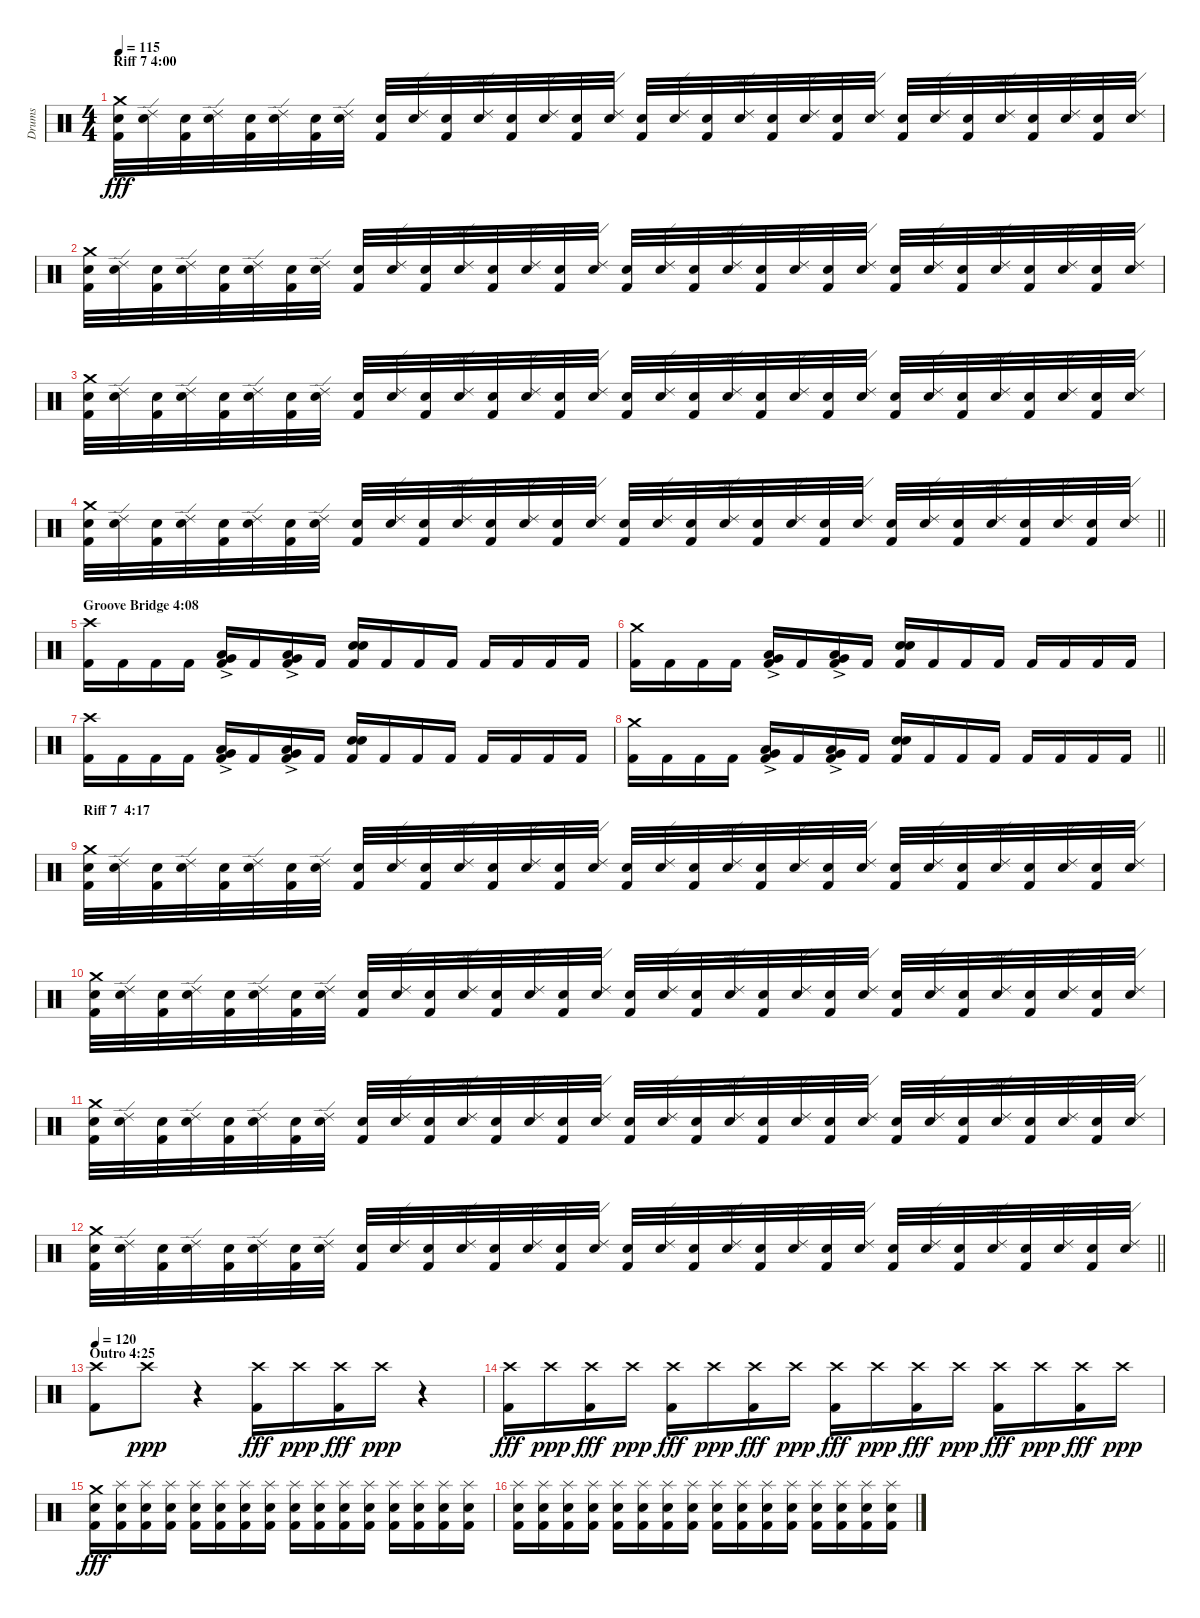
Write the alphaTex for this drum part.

\track ("Drums" "Drums") {instrument percussion}
\staff {score}
\articulation defaults
\ts (4 4)
\section ("" "Riff 7 4:00")
\tempo 115
\clef neutral
\ks c
("Kick (hit) 2" "Electric Snare (hit)" "Crash medium (hit)").32{dy fff} ("Electric Snare (hit)" "Ride (edge) 2").32 ("Kick (hit) 2" "Electric Snare (hit)").32 ("Electric Snare (hit)" "Ride (edge) 2").32 ("Kick (hit) 2" "Electric Snare (hit)").32 ("Electric Snare (hit)" "Ride (edge) 2").32 ("Kick (hit) 2" "Electric Snare (hit)").32 ("Electric Snare (hit)" "Ride (edge) 2").32 ("Kick (hit) 2" "Electric Snare (hit)").32 ("Electric Snare (hit)" "Ride (edge) 2").32 ("Kick (hit) 2" "Electric Snare (hit)").32 ("Electric Snare (hit)" "Ride (edge) 2").32 ("Kick (hit) 2" "Electric Snare (hit)").32 ("Electric Snare (hit)" "Ride (edge) 2").32 ("Kick (hit) 2" "Electric Snare (hit)").32 ("Electric Snare (hit)" "Ride (edge) 2").32 ("Kick (hit) 2" "Electric Snare (hit)").32 ("Electric Snare (hit)" "Ride (edge) 2").32 ("Kick (hit) 2" "Electric Snare (hit)").32 ("Electric Snare (hit)" "Ride (edge) 2").32 ("Kick (hit) 2" "Electric Snare (hit)").32 ("Electric Snare (hit)" "Ride (edge) 2").32 ("Kick (hit) 2" "Electric Snare (hit)").32 ("Electric Snare (hit)" "Ride (edge) 2").32 ("Kick (hit) 2" "Electric Snare (hit)").32 ("Electric Snare (hit)" "Ride (edge) 2").32 ("Kick (hit) 2" "Electric Snare (hit)").32 ("Electric Snare (hit)" "Ride (edge) 2").32 ("Kick (hit) 2" "Electric Snare (hit)").32 ("Electric Snare (hit)" "Ride (edge) 2").32 ("Kick (hit) 2" "Electric Snare (hit)").32 ("Electric Snare (hit)" "Ride (edge) 2").32 |
("Kick (hit) 2" "Electric Snare (hit)" "Crash medium (hit)").32 ("Electric Snare (hit)" "Ride (edge) 2").32 ("Kick (hit) 2" "Electric Snare (hit)").32 ("Electric Snare (hit)" "Ride (edge) 2").32 ("Kick (hit) 2" "Electric Snare (hit)").32 ("Electric Snare (hit)" "Ride (edge) 2").32 ("Kick (hit) 2" "Electric Snare (hit)").32 ("Electric Snare (hit)" "Ride (edge) 2").32 ("Kick (hit) 2" "Electric Snare (hit)").32 ("Electric Snare (hit)" "Ride (edge) 2").32 ("Kick (hit) 2" "Electric Snare (hit)").32 ("Electric Snare (hit)" "Ride (edge) 2").32 ("Kick (hit) 2" "Electric Snare (hit)").32 ("Electric Snare (hit)" "Ride (edge) 2").32 ("Kick (hit) 2" "Electric Snare (hit)").32 ("Electric Snare (hit)" "Ride (edge) 2").32 ("Kick (hit) 2" "Electric Snare (hit)").32 ("Electric Snare (hit)" "Ride (edge) 2").32 ("Kick (hit) 2" "Electric Snare (hit)").32 ("Electric Snare (hit)" "Ride (edge) 2").32 ("Kick (hit) 2" "Electric Snare (hit)").32 ("Electric Snare (hit)" "Ride (edge) 2").32 ("Kick (hit) 2" "Electric Snare (hit)").32 ("Electric Snare (hit)" "Ride (edge) 2").32 ("Kick (hit) 2" "Electric Snare (hit)").32 ("Electric Snare (hit)" "Ride (edge) 2").32 ("Kick (hit) 2" "Electric Snare (hit)").32 ("Electric Snare (hit)" "Ride (edge) 2").32 ("Kick (hit) 2" "Electric Snare (hit)").32 ("Electric Snare (hit)" "Ride (edge) 2").32 ("Kick (hit) 2" "Electric Snare (hit)").32 ("Electric Snare (hit)" "Ride (edge) 2").32 |
("Kick (hit) 2" "Electric Snare (hit)" "Crash medium (hit)").32 ("Electric Snare (hit)" "Ride (edge) 2").32 ("Kick (hit) 2" "Electric Snare (hit)").32 ("Electric Snare (hit)" "Ride (edge) 2").32 ("Kick (hit) 2" "Electric Snare (hit)").32 ("Electric Snare (hit)" "Ride (edge) 2").32 ("Kick (hit) 2" "Electric Snare (hit)").32 ("Electric Snare (hit)" "Ride (edge) 2").32 ("Kick (hit) 2" "Electric Snare (hit)").32 ("Electric Snare (hit)" "Ride (edge) 2").32 ("Kick (hit) 2" "Electric Snare (hit)").32 ("Electric Snare (hit)" "Ride (edge) 2").32 ("Kick (hit) 2" "Electric Snare (hit)").32 ("Electric Snare (hit)" "Ride (edge) 2").32 ("Kick (hit) 2" "Electric Snare (hit)").32 ("Electric Snare (hit)" "Ride (edge) 2").32 ("Kick (hit) 2" "Electric Snare (hit)").32 ("Electric Snare (hit)" "Ride (edge) 2").32 ("Kick (hit) 2" "Electric Snare (hit)").32 ("Electric Snare (hit)" "Ride (edge) 2").32 ("Kick (hit) 2" "Electric Snare (hit)").32 ("Electric Snare (hit)" "Ride (edge) 2").32 ("Kick (hit) 2" "Electric Snare (hit)").32 ("Electric Snare (hit)" "Ride (edge) 2").32 ("Kick (hit) 2" "Electric Snare (hit)").32 ("Electric Snare (hit)" "Ride (edge) 2").32 ("Kick (hit) 2" "Electric Snare (hit)").32 ("Electric Snare (hit)" "Ride (edge) 2").32 ("Kick (hit) 2" "Electric Snare (hit)").32 ("Electric Snare (hit)" "Ride (edge) 2").32 ("Kick (hit) 2" "Electric Snare (hit)").32 ("Electric Snare (hit)" "Ride (edge) 2").32 |
\barLineRight lightlight
("Kick (hit) 2" "Electric Snare (hit)" "Crash medium (hit)").32 ("Electric Snare (hit)" "Ride (edge) 2").32 ("Kick (hit) 2" "Electric Snare (hit)").32 ("Electric Snare (hit)" "Ride (edge) 2").32 ("Kick (hit) 2" "Electric Snare (hit)").32 ("Electric Snare (hit)" "Ride (edge) 2").32 ("Kick (hit) 2" "Electric Snare (hit)").32 ("Electric Snare (hit)" "Ride (edge) 2").32 ("Kick (hit) 2" "Electric Snare (hit)").32 ("Electric Snare (hit)" "Ride (edge) 2").32 ("Kick (hit) 2" "Electric Snare (hit)").32 ("Electric Snare (hit)" "Ride (edge) 2").32 ("Kick (hit) 2" "Electric Snare (hit)").32 ("Electric Snare (hit)" "Ride (edge) 2").32 ("Kick (hit) 2" "Electric Snare (hit)").32 ("Electric Snare (hit)" "Ride (edge) 2").32 ("Kick (hit) 2" "Electric Snare (hit)").32 ("Electric Snare (hit)" "Ride (edge) 2").32 ("Kick (hit) 2" "Electric Snare (hit)").32 ("Electric Snare (hit)" "Ride (edge) 2").32 ("Kick (hit) 2" "Electric Snare (hit)").32 ("Electric Snare (hit)" "Ride (edge) 2").32 ("Kick (hit) 2" "Electric Snare (hit)").32 ("Electric Snare (hit)" "Ride (edge) 2").32 ("Kick (hit) 2" "Electric Snare (hit)").32 ("Electric Snare (hit)" "Ride (edge) 2").32 ("Kick (hit) 2" "Electric Snare (hit)").32 ("Electric Snare (hit)" "Ride (edge) 2").32 ("Kick (hit) 2" "Electric Snare (hit)").32 ("Electric Snare (hit)" "Ride (edge) 2").32 ("Kick (hit) 2" "Electric Snare (hit)").32 ("Electric Snare (hit)" "Ride (edge) 2").32 |
\section ("" "Groove Bridge 4:08")
("Kick (hit) 2" "Crash high (hit)").16 "Kick (hit) 2".16 "Kick (hit) 2".16 "Kick (hit) 2".16 ("Kick (hit) 2" "Very Low Tom (hit)"{ac} "Low Tom (hit)"{ac}).16 "Kick (hit) 2".16 ("Kick (hit) 2" "Very Low Tom (hit)"{ac} "Low Tom (hit)"{ac}).16 "Kick (hit) 2".16 ("Kick (hit) 2" "Snare (hit) 2" "Electric Snare (hit)").16 "Kick (hit) 2".16 "Kick (hit) 2".16 "Kick (hit) 2".16 "Kick (hit) 2".16 "Kick (hit) 2".16 "Kick (hit) 2".16 "Kick (hit) 2".16 |
("Kick (hit) 2" "Crash medium (hit)").16 "Kick (hit) 2".16 "Kick (hit) 2".16 "Kick (hit) 2".16 ("Kick (hit) 2" "Very Low Tom (hit)"{ac} "Low Tom (hit)"{ac}).16 "Kick (hit) 2".16 ("Kick (hit) 2" "Very Low Tom (hit)"{ac} "Low Tom (hit)"{ac}).16 "Kick (hit) 2".16 ("Kick (hit) 2" "Snare (hit) 2" "Electric Snare (hit)").16 "Kick (hit) 2".16 "Kick (hit) 2".16 "Kick (hit) 2".16 "Kick (hit) 2".16 "Kick (hit) 2".16 "Kick (hit) 2".16 "Kick (hit) 2".16 |
("Kick (hit) 2" "Crash high (hit)").16 "Kick (hit) 2".16 "Kick (hit) 2".16 "Kick (hit) 2".16 ("Kick (hit) 2" "Very Low Tom (hit)"{ac} "Low Tom (hit)"{ac}).16 "Kick (hit) 2".16 ("Kick (hit) 2" "Very Low Tom (hit)"{ac} "Low Tom (hit)"{ac}).16 "Kick (hit) 2".16 ("Kick (hit) 2" "Snare (hit) 2" "Electric Snare (hit)").16 "Kick (hit) 2".16 "Kick (hit) 2".16 "Kick (hit) 2".16 "Kick (hit) 2".16 "Kick (hit) 2".16 "Kick (hit) 2".16 "Kick (hit) 2".16 |
\barLineRight lightlight
("Kick (hit) 2" "Crash medium (hit)").16 "Kick (hit) 2".16 "Kick (hit) 2".16 "Kick (hit) 2".16 ("Kick (hit) 2" "Very Low Tom (hit)"{ac} "Low Tom (hit)"{ac}).16 "Kick (hit) 2".16 ("Kick (hit) 2" "Very Low Tom (hit)"{ac} "Low Tom (hit)"{ac}).16 "Kick (hit) 2".16 ("Kick (hit) 2" "Snare (hit) 2" "Electric Snare (hit)").16 "Kick (hit) 2".16 "Kick (hit) 2".16 "Kick (hit) 2".16 "Kick (hit) 2".16 "Kick (hit) 2".16 "Kick (hit) 2".16 "Kick (hit) 2".16 |
\section ("" "Riff 7  4:17")
("Kick (hit) 2" "Electric Snare (hit)" "Crash medium (hit)").32 ("Electric Snare (hit)" "Ride (edge) 2").32 ("Kick (hit) 2" "Electric Snare (hit)").32 ("Electric Snare (hit)" "Ride (edge) 2").32 ("Kick (hit) 2" "Electric Snare (hit)").32 ("Electric Snare (hit)" "Ride (edge) 2").32 ("Kick (hit) 2" "Electric Snare (hit)").32 ("Electric Snare (hit)" "Ride (edge) 2").32 ("Kick (hit) 2" "Electric Snare (hit)").32 ("Electric Snare (hit)" "Ride (edge) 2").32 ("Kick (hit) 2" "Electric Snare (hit)").32 ("Electric Snare (hit)" "Ride (edge) 2").32 ("Kick (hit) 2" "Electric Snare (hit)").32 ("Electric Snare (hit)" "Ride (edge) 2").32 ("Kick (hit) 2" "Electric Snare (hit)").32 ("Electric Snare (hit)" "Ride (edge) 2").32 ("Kick (hit) 2" "Electric Snare (hit)").32 ("Electric Snare (hit)" "Ride (edge) 2").32 ("Kick (hit) 2" "Electric Snare (hit)").32 ("Electric Snare (hit)" "Ride (edge) 2").32 ("Kick (hit) 2" "Electric Snare (hit)").32 ("Electric Snare (hit)" "Ride (edge) 2").32 ("Kick (hit) 2" "Electric Snare (hit)").32 ("Electric Snare (hit)" "Ride (edge) 2").32 ("Kick (hit) 2" "Electric Snare (hit)").32 ("Electric Snare (hit)" "Ride (edge) 2").32 ("Kick (hit) 2" "Electric Snare (hit)").32 ("Electric Snare (hit)" "Ride (edge) 2").32 ("Kick (hit) 2" "Electric Snare (hit)").32 ("Electric Snare (hit)" "Ride (edge) 2").32 ("Kick (hit) 2" "Electric Snare (hit)").32 ("Electric Snare (hit)" "Ride (edge) 2").32 |
("Kick (hit) 2" "Electric Snare (hit)" "Crash medium (hit)").32 ("Electric Snare (hit)" "Ride (edge) 2").32 ("Kick (hit) 2" "Electric Snare (hit)").32 ("Electric Snare (hit)" "Ride (edge) 2").32 ("Kick (hit) 2" "Electric Snare (hit)").32 ("Electric Snare (hit)" "Ride (edge) 2").32 ("Kick (hit) 2" "Electric Snare (hit)").32 ("Electric Snare (hit)" "Ride (edge) 2").32 ("Kick (hit) 2" "Electric Snare (hit)").32 ("Electric Snare (hit)" "Ride (edge) 2").32 ("Kick (hit) 2" "Electric Snare (hit)").32 ("Electric Snare (hit)" "Ride (edge) 2").32 ("Kick (hit) 2" "Electric Snare (hit)").32 ("Electric Snare (hit)" "Ride (edge) 2").32 ("Kick (hit) 2" "Electric Snare (hit)").32 ("Electric Snare (hit)" "Ride (edge) 2").32 ("Kick (hit) 2" "Electric Snare (hit)").32 ("Electric Snare (hit)" "Ride (edge) 2").32 ("Kick (hit) 2" "Electric Snare (hit)").32 ("Electric Snare (hit)" "Ride (edge) 2").32 ("Kick (hit) 2" "Electric Snare (hit)").32 ("Electric Snare (hit)" "Ride (edge) 2").32 ("Kick (hit) 2" "Electric Snare (hit)").32 ("Electric Snare (hit)" "Ride (edge) 2").32 ("Kick (hit) 2" "Electric Snare (hit)").32 ("Electric Snare (hit)" "Ride (edge) 2").32 ("Kick (hit) 2" "Electric Snare (hit)").32 ("Electric Snare (hit)" "Ride (edge) 2").32 ("Kick (hit) 2" "Electric Snare (hit)").32 ("Electric Snare (hit)" "Ride (edge) 2").32 ("Kick (hit) 2" "Electric Snare (hit)").32 ("Electric Snare (hit)" "Ride (edge) 2").32 |
("Kick (hit) 2" "Electric Snare (hit)" "Crash medium (hit)").32 ("Electric Snare (hit)" "Ride (edge) 2").32 ("Kick (hit) 2" "Electric Snare (hit)").32 ("Electric Snare (hit)" "Ride (edge) 2").32 ("Kick (hit) 2" "Electric Snare (hit)").32 ("Electric Snare (hit)" "Ride (edge) 2").32 ("Kick (hit) 2" "Electric Snare (hit)").32 ("Electric Snare (hit)" "Ride (edge) 2").32 ("Kick (hit) 2" "Electric Snare (hit)").32 ("Electric Snare (hit)" "Ride (edge) 2").32 ("Kick (hit) 2" "Electric Snare (hit)").32 ("Electric Snare (hit)" "Ride (edge) 2").32 ("Kick (hit) 2" "Electric Snare (hit)").32 ("Electric Snare (hit)" "Ride (edge) 2").32 ("Kick (hit) 2" "Electric Snare (hit)").32 ("Electric Snare (hit)" "Ride (edge) 2").32 ("Kick (hit) 2" "Electric Snare (hit)").32 ("Electric Snare (hit)" "Ride (edge) 2").32 ("Kick (hit) 2" "Electric Snare (hit)").32 ("Electric Snare (hit)" "Ride (edge) 2").32 ("Kick (hit) 2" "Electric Snare (hit)").32 ("Electric Snare (hit)" "Ride (edge) 2").32 ("Kick (hit) 2" "Electric Snare (hit)").32 ("Electric Snare (hit)" "Ride (edge) 2").32 ("Kick (hit) 2" "Electric Snare (hit)").32 ("Electric Snare (hit)" "Ride (edge) 2").32 ("Kick (hit) 2" "Electric Snare (hit)").32 ("Electric Snare (hit)" "Ride (edge) 2").32 ("Kick (hit) 2" "Electric Snare (hit)").32 ("Electric Snare (hit)" "Ride (edge) 2").32 ("Kick (hit) 2" "Electric Snare (hit)").32 ("Electric Snare (hit)" "Ride (edge) 2").32 |
\barLineRight lightlight
("Kick (hit) 2" "Electric Snare (hit)" "Crash medium (hit)").32 ("Electric Snare (hit)" "Ride (edge) 2").32 ("Kick (hit) 2" "Electric Snare (hit)").32 ("Electric Snare (hit)" "Ride (edge) 2").32 ("Kick (hit) 2" "Electric Snare (hit)").32 ("Electric Snare (hit)" "Ride (edge) 2").32 ("Kick (hit) 2" "Electric Snare (hit)").32 ("Electric Snare (hit)" "Ride (edge) 2").32 ("Kick (hit) 2" "Electric Snare (hit)").32 ("Electric Snare (hit)" "Ride (edge) 2").32 ("Kick (hit) 2" "Electric Snare (hit)").32 ("Electric Snare (hit)" "Ride (edge) 2").32 ("Kick (hit) 2" "Electric Snare (hit)").32 ("Electric Snare (hit)" "Ride (edge) 2").32 ("Kick (hit) 2" "Electric Snare (hit)").32 ("Electric Snare (hit)" "Ride (edge) 2").32 ("Kick (hit) 2" "Electric Snare (hit)").32 ("Electric Snare (hit)" "Ride (edge) 2").32 ("Kick (hit) 2" "Electric Snare (hit)").32 ("Electric Snare (hit)" "Ride (edge) 2").32 ("Kick (hit) 2" "Electric Snare (hit)").32 ("Electric Snare (hit)" "Ride (edge) 2").32 ("Kick (hit) 2" "Electric Snare (hit)").32 ("Electric Snare (hit)" "Ride (edge) 2").32 ("Kick (hit) 2" "Electric Snare (hit)").32 ("Electric Snare (hit)" "Ride (edge) 2").32 ("Kick (hit) 2" "Electric Snare (hit)").32 ("Electric Snare (hit)" "Ride (edge) 2").32 ("Kick (hit) 2" "Electric Snare (hit)").32 ("Electric Snare (hit)" "Ride (edge) 2").32 ("Kick (hit) 2" "Electric Snare (hit)").32 ("Electric Snare (hit)" "Ride (edge) 2").32 |
\section ("" "Outro 4:25")
\tempo 120
("Kick (hit) 2" "Crash high (hit)").8 "Crash high (hit)".8{dy ppp} r.4 ("Kick (hit) 2" "Crash high (hit)").16{dy fff} "Crash high (hit)".16{dy ppp} ("Kick (hit) 2" "Crash high (hit)").16{dy fff} "Crash high (hit)".16{dy ppp} r.4 |
("Kick (hit) 2" "Crash high (hit)").16{dy fff} "Crash high (hit)".16{dy ppp} ("Kick (hit) 2" "Crash high (hit)").16{dy fff} "Crash high (hit)".16{dy ppp} ("Kick (hit) 2" "Crash high (hit)").16{dy fff} "Crash high (hit)".16{dy ppp} ("Kick (hit) 2" "Crash high (hit)").16{dy fff} "Crash high (hit)".16{dy ppp} ("Kick (hit) 2" "Crash high (hit)").16{dy fff} "Crash high (hit)".16{dy ppp} ("Kick (hit) 2" "Crash high (hit)").16{dy fff} "Crash high (hit)".16{dy ppp} ("Kick (hit) 2" "Crash high (hit)").16{dy fff} "Crash high (hit)".16{dy ppp} ("Kick (hit) 2" "Crash high (hit)").16{dy fff} "Crash high (hit)".16{dy ppp} |
("Kick (hit) 2" "Electric Snare (hit)" "Crash medium (hit)").16{dy fff} ("Kick (hit) 2" "Electric Snare (hit)" "Splash (hit)").16 ("Kick (hit) 2" "Electric Snare (hit)" "Splash (hit)").16 ("Kick (hit) 2" "Electric Snare (hit)" "Splash (hit)").16 ("Kick (hit) 2" "Electric Snare (hit)" "Splash (hit)").16 ("Kick (hit) 2" "Electric Snare (hit)" "Splash (hit)").16 ("Kick (hit) 2" "Electric Snare (hit)" "Splash (hit)").16 ("Kick (hit) 2" "Electric Snare (hit)" "Splash (hit)").16 ("Kick (hit) 2" "Electric Snare (hit)" "Splash (hit)").16 ("Kick (hit) 2" "Electric Snare (hit)" "Splash (hit)").16 ("Kick (hit) 2" "Electric Snare (hit)" "Splash (hit)").16 ("Kick (hit) 2" "Electric Snare (hit)" "Splash (hit)").16 ("Kick (hit) 2" "Electric Snare (hit)" "Splash (hit)").16 ("Kick (hit) 2" "Electric Snare (hit)" "Splash (hit)").16 ("Kick (hit) 2" "Electric Snare (hit)" "Splash (hit)").16 ("Kick (hit) 2" "Electric Snare (hit)" "Splash (hit)").16 |
("Kick (hit) 2" "Electric Snare (hit)" "Splash (hit)").16 ("Kick (hit) 2" "Electric Snare (hit)" "Splash (hit)").16 ("Kick (hit) 2" "Electric Snare (hit)" "Splash (hit)").16 ("Kick (hit) 2" "Electric Snare (hit)" "Splash (hit)").16 ("Kick (hit) 2" "Electric Snare (hit)" "Splash (hit)").16 ("Kick (hit) 2" "Electric Snare (hit)" "Splash (hit)").16 ("Kick (hit) 2" "Electric Snare (hit)" "Splash (hit)").16 ("Kick (hit) 2" "Electric Snare (hit)" "Splash (hit)").16 ("Kick (hit) 2" "Electric Snare (hit)" "Splash (hit)").16 ("Kick (hit) 2" "Electric Snare (hit)" "Splash (hit)").16 ("Kick (hit) 2" "Electric Snare (hit)" "Splash (hit)").16 ("Kick (hit) 2" "Electric Snare (hit)" "Splash (hit)").16 ("Kick (hit) 2" "Electric Snare (hit)" "Splash (hit)").16 ("Kick (hit) 2" "Electric Snare (hit)" "Splash (hit)").16 ("Kick (hit) 2" "Electric Snare (hit)" "Splash (hit)").16 ("Kick (hit) 2" "Electric Snare (hit)" "Splash (hit)").16
